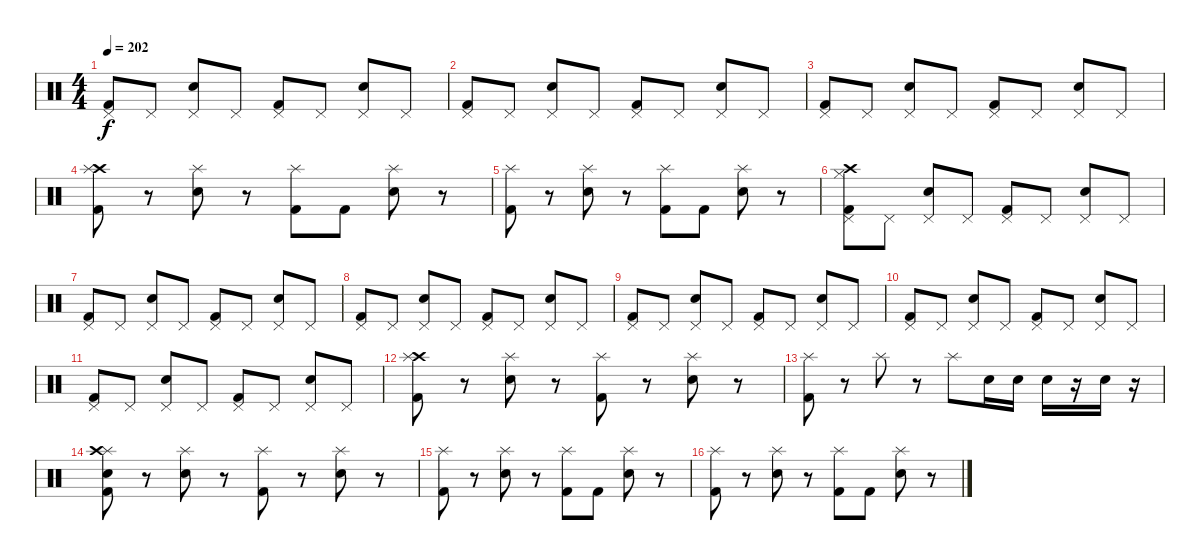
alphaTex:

\track "" {instrument percussion}
\staff {score}
\articulation defaults
\ts (4 4)
\tempo 202
\clef neutral
\ks c
("Pedal Hi-Hat (hit)" "Kick (hit) 2").8{dy f} "Pedal Hi-Hat (hit)".8 ("Pedal Hi-Hat (hit)" "Electric Snare (hit)").8 "Pedal Hi-Hat (hit)".8 ("Pedal Hi-Hat (hit)" "Kick (hit) 2").8 "Pedal Hi-Hat (hit)".8 ("Pedal Hi-Hat (hit)" "Electric Snare (hit)").8 "Pedal Hi-Hat (hit)".8 |
("Pedal Hi-Hat (hit)" "Kick (hit) 2").8 "Pedal Hi-Hat (hit)".8 ("Pedal Hi-Hat (hit)" "Electric Snare (hit)").8 "Pedal Hi-Hat (hit)".8 ("Pedal Hi-Hat (hit)" "Kick (hit) 2").8 "Pedal Hi-Hat (hit)".8 ("Pedal Hi-Hat (hit)" "Electric Snare (hit)").8 "Pedal Hi-Hat (hit)".8 |
("Pedal Hi-Hat (hit)" "Kick (hit) 2").8 "Pedal Hi-Hat (hit)".8 ("Pedal Hi-Hat (hit)" "Electric Snare (hit)").8 "Pedal Hi-Hat (hit)".8 ("Pedal Hi-Hat (hit)" "Kick (hit) 2").8 "Pedal Hi-Hat (hit)".8 ("Pedal Hi-Hat (hit)" "Electric Snare (hit)").8 "Pedal Hi-Hat (hit)".8 |
("Crash high (hit)" "Splash (hit)" "Kick (hit) 2").8 r.8 ("Splash (hit)" "Electric Snare (hit)").8 r.8 ("Splash (hit)" "Kick (hit) 2").8 "Kick (hit) 2".8 ("Splash (hit)" "Electric Snare (hit)").8 r.8 |
("Splash (hit)" "Kick (hit) 2").8 r.8 ("Splash (hit)" "Electric Snare (hit)").8 r.8 ("Splash (hit)" "Kick (hit) 2").8 "Kick (hit) 2".8 ("Splash (hit)" "Electric Snare (hit)").8 r.8 |
("Pedal Hi-Hat (hit)" "Crash high (hit)" "Hi-Hat (closed)" "Kick (hit) 2").8 "Pedal Hi-Hat (hit)".8 ("Pedal Hi-Hat (hit)" "Electric Snare (hit)").8 "Pedal Hi-Hat (hit)".8 ("Pedal Hi-Hat (hit)" "Kick (hit) 2").8 "Pedal Hi-Hat (hit)".8 ("Pedal Hi-Hat (hit)" "Electric Snare (hit)").8 "Pedal Hi-Hat (hit)".8 |
("Pedal Hi-Hat (hit)" "Kick (hit) 2").8 "Pedal Hi-Hat (hit)".8 ("Pedal Hi-Hat (hit)" "Electric Snare (hit)").8 "Pedal Hi-Hat (hit)".8 ("Pedal Hi-Hat (hit)" "Kick (hit) 2").8 "Pedal Hi-Hat (hit)".8 ("Pedal Hi-Hat (hit)" "Electric Snare (hit)").8 "Pedal Hi-Hat (hit)".8 |
("Pedal Hi-Hat (hit)" "Kick (hit) 2").8 "Pedal Hi-Hat (hit)".8 ("Pedal Hi-Hat (hit)" "Electric Snare (hit)").8 "Pedal Hi-Hat (hit)".8 ("Pedal Hi-Hat (hit)" "Kick (hit) 2").8 "Pedal Hi-Hat (hit)".8 ("Pedal Hi-Hat (hit)" "Electric Snare (hit)").8 "Pedal Hi-Hat (hit)".8 |
("Pedal Hi-Hat (hit)" "Kick (hit) 2").8 "Pedal Hi-Hat (hit)".8 ("Pedal Hi-Hat (hit)" "Electric Snare (hit)").8 "Pedal Hi-Hat (hit)".8 ("Pedal Hi-Hat (hit)" "Kick (hit) 2").8 "Pedal Hi-Hat (hit)".8 ("Pedal Hi-Hat (hit)" "Electric Snare (hit)").8 "Pedal Hi-Hat (hit)".8 |
("Pedal Hi-Hat (hit)" "Kick (hit) 2").8 "Pedal Hi-Hat (hit)".8 ("Pedal Hi-Hat (hit)" "Electric Snare (hit)").8 "Pedal Hi-Hat (hit)".8 ("Pedal Hi-Hat (hit)" "Kick (hit) 2").8 "Pedal Hi-Hat (hit)".8 ("Pedal Hi-Hat (hit)" "Electric Snare (hit)").8 "Pedal Hi-Hat (hit)".8 |
("Pedal Hi-Hat (hit)" "Kick (hit) 2").8 "Pedal Hi-Hat (hit)".8 ("Pedal Hi-Hat (hit)" "Electric Snare (hit)").8 "Pedal Hi-Hat (hit)".8 ("Pedal Hi-Hat (hit)" "Kick (hit) 2").8 "Pedal Hi-Hat (hit)".8 ("Pedal Hi-Hat (hit)" "Electric Snare (hit)").8 "Pedal Hi-Hat (hit)".8 |
("Crash high (hit)" "Splash (hit)" "Kick (hit) 2").8 r.8 ("Splash (hit)" "Electric Snare (hit)").8 r.8 ("Splash (hit)" "Kick (hit) 2").8 r.8 ("Splash (hit)" "Electric Snare (hit)").8 r.8 |
("Splash (hit)" "Kick (hit) 2").8 r.8 "Splash (hit)".8 r.8 "Splash (hit)".8 "Electric Snare (hit)".16 "Electric Snare (hit)".16 "Electric Snare (hit)".16 r.16 "Electric Snare (hit)".16 r.16 |
("Splash (hit)" "Crash high (hit)" "Kick (hit) 2" "Electric Snare (hit)").8 r.8 ("Splash (hit)" "Electric Snare (hit)").8 r.8 ("Splash (hit)" "Kick (hit) 2").8 r.8 ("Splash (hit)" "Electric Snare (hit)").8 r.8 |
("Splash (hit)" "Kick (hit) 2").8 r.8 ("Splash (hit)" "Electric Snare (hit)").8 r.8 ("Splash (hit)" "Kick (hit) 2").8 "Kick (hit) 2".8 ("Splash (hit)" "Electric Snare (hit)").8 r.8 |
("Splash (hit)" "Kick (hit) 2").8 r.8 ("Splash (hit)" "Electric Snare (hit)").8 r.8 ("Splash (hit)" "Kick (hit) 2").8 "Kick (hit) 2".8 ("Splash (hit)" "Electric Snare (hit)").8 r.8
